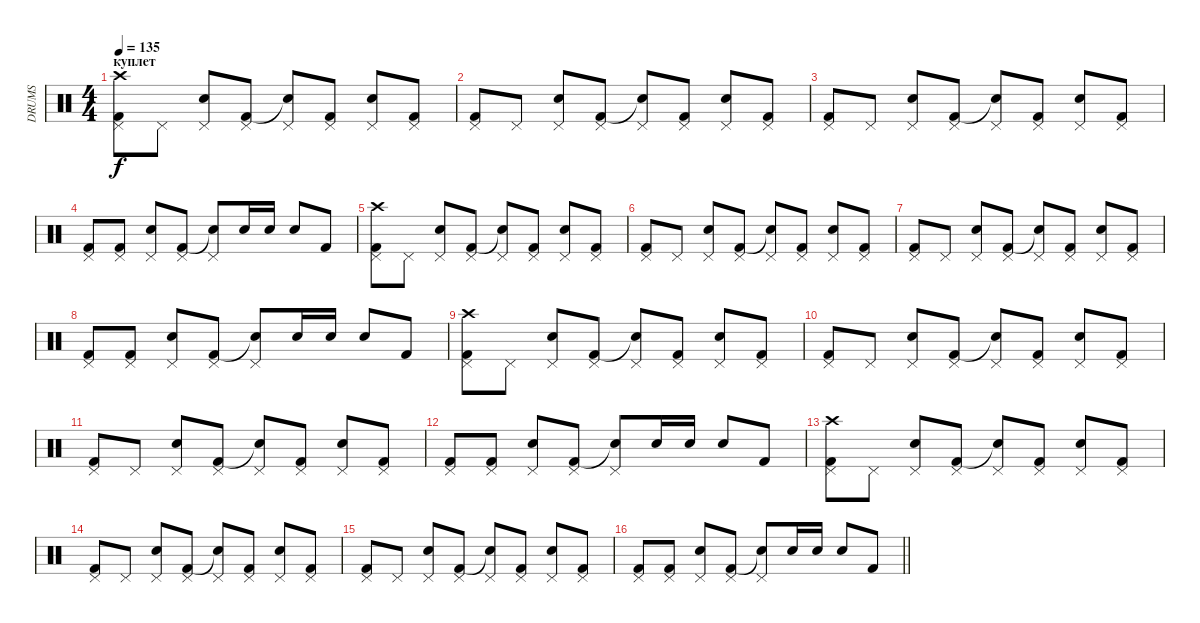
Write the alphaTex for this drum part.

\track ("DRUMS" "DRUMS") {instrument percussion}
\staff {score}
\articulation defaults
\ts (4 4)
\section ("" "куплет")
\tempo 135
\clef neutral
\ks c
("Crash high (hit)" "Pedal Hi-Hat (hit)" "Kick (hit) 2").8{dy f} "Pedal Hi-Hat (hit)".8 ("Pedal Hi-Hat (hit)" "Snare (hit) 2").8 ("Pedal Hi-Hat (hit)" "Kick (hit) 2").8 ("Pedal Hi-Hat (hit)" "Snare (hit)"{t}).8 ("Pedal Hi-Hat (hit)" "Kick (hit) 2").8 ("Pedal Hi-Hat (hit)" "Snare (hit) 2").8 ("Pedal Hi-Hat (hit)" "Kick (hit) 2").8 |
("Pedal Hi-Hat (hit)" "Kick (hit) 2").8 "Pedal Hi-Hat (hit)".8 ("Pedal Hi-Hat (hit)" "Snare (hit) 2").8 ("Pedal Hi-Hat (hit)" "Kick (hit) 2").8 ("Pedal Hi-Hat (hit)" "Snare (hit)"{t}).8 ("Pedal Hi-Hat (hit)" "Kick (hit) 2").8 ("Pedal Hi-Hat (hit)" "Snare (hit) 2").8 ("Pedal Hi-Hat (hit)" "Kick (hit) 2").8 |
("Pedal Hi-Hat (hit)" "Kick (hit) 2").8 "Pedal Hi-Hat (hit)".8 ("Pedal Hi-Hat (hit)" "Snare (hit) 2").8 ("Pedal Hi-Hat (hit)" "Kick (hit) 2").8 ("Pedal Hi-Hat (hit)" "Snare (hit)"{t}).8 ("Pedal Hi-Hat (hit)" "Kick (hit) 2").8 ("Pedal Hi-Hat (hit)" "Snare (hit) 2").8 ("Pedal Hi-Hat (hit)" "Kick (hit) 2").8 |
("Pedal Hi-Hat (hit)" "Kick (hit) 2").8 ("Pedal Hi-Hat (hit)" "Kick (hit) 2").8 ("Pedal Hi-Hat (hit)" "Snare (hit) 2").8 ("Pedal Hi-Hat (hit)" "Kick (hit) 2").8 ("Pedal Hi-Hat (hit)" "Snare (hit)"{t}).8 "Snare (hit) 2".16 "Snare (hit) 2".16 "Snare (hit) 2".8 "Kick (hit) 2".8 |
("Crash high (hit)" "Pedal Hi-Hat (hit)" "Kick (hit) 2").8 "Pedal Hi-Hat (hit)".8 ("Pedal Hi-Hat (hit)" "Snare (hit) 2").8 ("Pedal Hi-Hat (hit)" "Kick (hit) 2").8 ("Pedal Hi-Hat (hit)" "Snare (hit)"{t}).8 ("Pedal Hi-Hat (hit)" "Kick (hit) 2").8 ("Pedal Hi-Hat (hit)" "Snare (hit) 2").8 ("Pedal Hi-Hat (hit)" "Kick (hit) 2").8 |
("Pedal Hi-Hat (hit)" "Kick (hit) 2").8 "Pedal Hi-Hat (hit)".8 ("Pedal Hi-Hat (hit)" "Snare (hit) 2").8 ("Pedal Hi-Hat (hit)" "Kick (hit) 2").8 ("Pedal Hi-Hat (hit)" "Snare (hit)"{t}).8 ("Pedal Hi-Hat (hit)" "Kick (hit) 2").8 ("Pedal Hi-Hat (hit)" "Snare (hit) 2").8 ("Pedal Hi-Hat (hit)" "Kick (hit) 2").8 |
("Pedal Hi-Hat (hit)" "Kick (hit) 2").8 "Pedal Hi-Hat (hit)".8 ("Pedal Hi-Hat (hit)" "Snare (hit) 2").8 ("Pedal Hi-Hat (hit)" "Kick (hit) 2").8 ("Pedal Hi-Hat (hit)" "Snare (hit)"{t}).8 ("Pedal Hi-Hat (hit)" "Kick (hit) 2").8 ("Pedal Hi-Hat (hit)" "Snare (hit) 2").8 ("Pedal Hi-Hat (hit)" "Kick (hit) 2").8 |
("Pedal Hi-Hat (hit)" "Kick (hit) 2").8 ("Pedal Hi-Hat (hit)" "Kick (hit) 2").8 ("Pedal Hi-Hat (hit)" "Snare (hit) 2").8 ("Pedal Hi-Hat (hit)" "Kick (hit) 2").8 ("Pedal Hi-Hat (hit)" "Snare (hit)"{t}).8 "Snare (hit) 2".16 "Snare (hit) 2".16 "Snare (hit) 2".8 "Kick (hit) 2".8 |
("Crash high (hit)" "Pedal Hi-Hat (hit)" "Kick (hit) 2").8 "Pedal Hi-Hat (hit)".8 ("Pedal Hi-Hat (hit)" "Snare (hit) 2").8 ("Pedal Hi-Hat (hit)" "Kick (hit) 2").8 ("Pedal Hi-Hat (hit)" "Snare (hit)"{t}).8 ("Pedal Hi-Hat (hit)" "Kick (hit) 2").8 ("Pedal Hi-Hat (hit)" "Snare (hit) 2").8 ("Pedal Hi-Hat (hit)" "Kick (hit) 2").8 |
("Pedal Hi-Hat (hit)" "Kick (hit) 2").8 "Pedal Hi-Hat (hit)".8 ("Pedal Hi-Hat (hit)" "Snare (hit) 2").8 ("Pedal Hi-Hat (hit)" "Kick (hit) 2").8 ("Pedal Hi-Hat (hit)" "Snare (hit)"{t}).8 ("Pedal Hi-Hat (hit)" "Kick (hit) 2").8 ("Pedal Hi-Hat (hit)" "Snare (hit) 2").8 ("Pedal Hi-Hat (hit)" "Kick (hit) 2").8 |
("Pedal Hi-Hat (hit)" "Kick (hit) 2").8 "Pedal Hi-Hat (hit)".8 ("Pedal Hi-Hat (hit)" "Snare (hit) 2").8 ("Pedal Hi-Hat (hit)" "Kick (hit) 2").8 ("Pedal Hi-Hat (hit)" "Snare (hit)"{t}).8 ("Pedal Hi-Hat (hit)" "Kick (hit) 2").8 ("Pedal Hi-Hat (hit)" "Snare (hit) 2").8 ("Pedal Hi-Hat (hit)" "Kick (hit) 2").8 |
("Pedal Hi-Hat (hit)" "Kick (hit) 2").8 ("Pedal Hi-Hat (hit)" "Kick (hit) 2").8 ("Pedal Hi-Hat (hit)" "Snare (hit) 2").8 ("Pedal Hi-Hat (hit)" "Kick (hit) 2").8 ("Pedal Hi-Hat (hit)" "Snare (hit)"{t}).8 "Snare (hit) 2".16 "Snare (hit) 2".16 "Snare (hit) 2".8 "Kick (hit) 2".8 |
("Crash high (hit)" "Pedal Hi-Hat (hit)" "Kick (hit) 2").8 "Pedal Hi-Hat (hit)".8 ("Pedal Hi-Hat (hit)" "Snare (hit) 2").8 ("Pedal Hi-Hat (hit)" "Kick (hit) 2").8 ("Pedal Hi-Hat (hit)" "Snare (hit)"{t}).8 ("Pedal Hi-Hat (hit)" "Kick (hit) 2").8 ("Pedal Hi-Hat (hit)" "Snare (hit) 2").8 ("Pedal Hi-Hat (hit)" "Kick (hit) 2").8 |
("Pedal Hi-Hat (hit)" "Kick (hit) 2").8 "Pedal Hi-Hat (hit)".8 ("Pedal Hi-Hat (hit)" "Snare (hit) 2").8 ("Pedal Hi-Hat (hit)" "Kick (hit) 2").8 ("Pedal Hi-Hat (hit)" "Snare (hit)"{t}).8 ("Pedal Hi-Hat (hit)" "Kick (hit) 2").8 ("Pedal Hi-Hat (hit)" "Snare (hit) 2").8 ("Pedal Hi-Hat (hit)" "Kick (hit) 2").8 |
("Pedal Hi-Hat (hit)" "Kick (hit) 2").8 "Pedal Hi-Hat (hit)".8 ("Pedal Hi-Hat (hit)" "Snare (hit) 2").8 ("Pedal Hi-Hat (hit)" "Kick (hit) 2").8 ("Pedal Hi-Hat (hit)" "Snare (hit)"{t}).8 ("Pedal Hi-Hat (hit)" "Kick (hit) 2").8 ("Pedal Hi-Hat (hit)" "Snare (hit) 2").8 ("Pedal Hi-Hat (hit)" "Kick (hit) 2").8 |
\barLineRight lightlight
("Pedal Hi-Hat (hit)" "Kick (hit) 2").8 ("Pedal Hi-Hat (hit)" "Kick (hit) 2").8 ("Pedal Hi-Hat (hit)" "Snare (hit) 2").8 ("Pedal Hi-Hat (hit)" "Kick (hit) 2").8 ("Pedal Hi-Hat (hit)" "Snare (hit)"{t}).8 "Snare (hit) 2".16 "Snare (hit) 2".16 "Snare (hit) 2".8 "Kick (hit) 2".8
